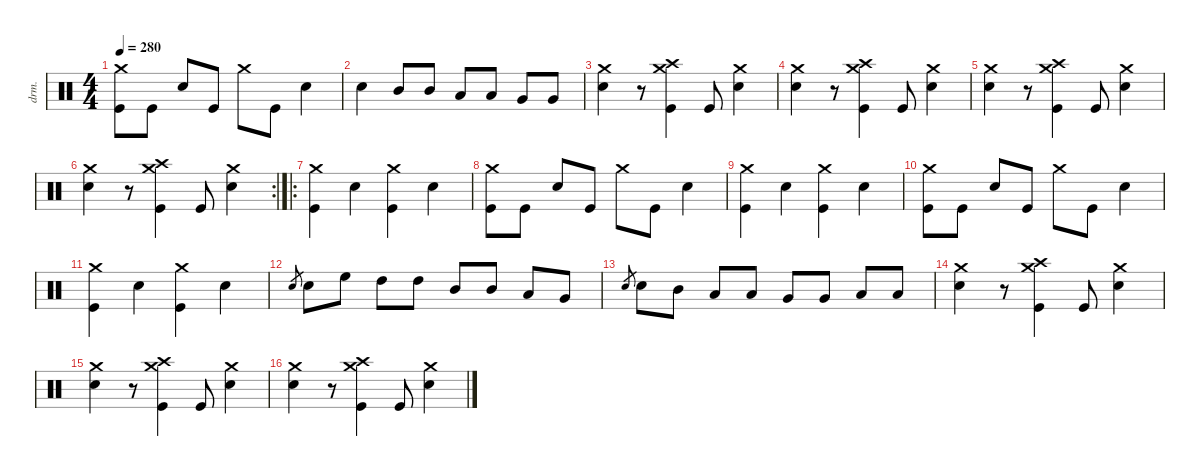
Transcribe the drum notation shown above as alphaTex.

\defaultSystemsLayout 4
\hideDynamics
\bracketExtendMode nobrackets
\otherSystemsTrackNameOrientation horizontal
\track ("Nick Menza" "drm.") {instrument percussion}
\staff {score}
\articulation defaults
\ts (4 4)
\tempo 280
\clef neutral
\ks c
("Crash medium (hit)" "Kick (hit)").8{dy f beam Down} "Kick (hit)".8{beam Down} "Snare (hit) 2".8{beam Up} "Kick (hit)".8{beam Up} "Crash medium (hit)".8{beam Down} "Kick (hit)".8{beam Down} "Snare (hit) 2".4{beam Down} |
"Snare (hit) 2".4{beam Down} "Mid Tom (hit)".8{beam Up} "Mid Tom (hit)".8{beam Up} "Low Tom (hit)".8{beam Up} "Low Tom (hit)".8{beam Up} "Very Low Tom (hit)".8{beam Up} "Very Low Tom (hit)".8{beam Up} |
("Crash medium (hit)" "Snare (hit) 2").4{beam Down} r.8{beam Down} ("Crash high (hit)" "Crash medium (hit)" "Kick (hit)").4{dy mp beam Down} "Kick (hit)".8{dy f beam Up} ("Crash medium (hit)" "Snare (hit) 2").4{beam Down} |
("Crash medium (hit)" "Snare (hit) 2").4{beam Down} r.8{beam Down} ("Crash high (hit)" "Crash medium (hit)" "Kick (hit)").4{dy mp beam Down} "Kick (hit)".8{dy f beam Up} ("Crash medium (hit)" "Snare (hit) 2").4{beam Down} |
("Crash medium (hit)" "Snare (hit) 2").4{beam Down} r.8{beam Down} ("Crash high (hit)" "Crash medium (hit)" "Kick (hit)").4{dy mp beam Down} "Kick (hit)".8{dy f beam Up} ("Crash medium (hit)" "Snare (hit) 2").4{beam Down} |
\rc 2
("Crash medium (hit)" "Snare (hit) 2").4{beam Down} r.8{beam Down} ("Crash high (hit)" "Crash medium (hit)" "Kick (hit)").4{dy mp beam Down} "Kick (hit)".8{dy f beam Up} ("Crash medium (hit)" "Snare (hit) 2").4{beam Down} |
\ro
("Crash medium (hit)" "Kick (hit)").4{beam Down} "Snare (hit) 2".4{beam Down} ("Crash medium (hit)" "Kick (hit)").4{beam Down} "Snare (hit) 2".4{beam Down} |
("Crash medium (hit)" "Kick (hit)").8{beam Down} "Kick (hit)".8{beam Down} "Snare (hit) 2".8{beam Up} "Kick (hit)".8{beam Up} "Crash medium (hit)".8{beam Down} "Kick (hit)".8{beam Down} "Snare (hit) 2".4{beam Down} |
("Crash medium (hit)" "Kick (hit)").4{beam Down} "Snare (hit) 2".4{beam Down} ("Crash medium (hit)" "Kick (hit)").4{beam Down} "Snare (hit) 2".4{beam Down} |
("Crash medium (hit)" "Kick (hit)").8{beam Down} "Kick (hit)".8{beam Down} "Snare (hit) 2".8{beam Up} "Kick (hit)".8{beam Up} "Crash medium (hit)".8{beam Down} "Kick (hit)".8{beam Down} "Snare (hit) 2".4{beam Down} |
("Crash medium (hit)" "Kick (hit)").4{beam Down} "Snare (hit) 2".4{beam Down} ("Crash medium (hit)" "Kick (hit)").4{beam Down} "Snare (hit) 2".4{beam Down} |
"Snare (hit) 2".8{gr dy mf beam Up} "Snare (hit) 2".8{dy f beam Down} "High Floor Tom (hit)".8{beam Down} "High Tom (hit)".8{beam Down} "High Tom (hit)".8{beam Down} "Mid Tom (hit)".8{beam Up} "Mid Tom (hit)".8{beam Up} "Low Tom (hit)".8{beam Up} "Very Low Tom (hit)".8{beam Up} |
"Snare (hit) 2".8{gr dy mf beam Up} "Snare (hit) 2".8{dy f beam Down} "Mid Tom (hit)".8{beam Down} "Low Tom (hit)".8{beam Up} "Low Tom (hit)".8{beam Up} "Very Low Tom (hit)".8{beam Up} "Very Low Tom (hit)".8{beam Up} "Low Floor Tom (hit)".8{beam Up} "Low Floor Tom (hit)".8{beam Up} |
("Crash medium (hit)" "Snare (hit) 2").4{beam Down} r.8{beam Down} ("Crash high (hit)" "Crash medium (hit)" "Kick (hit)").4{dy mp beam Down} "Kick (hit)".8{dy f beam Up} ("Crash medium (hit)" "Snare (hit) 2").4{beam Down} |
("Crash medium (hit)" "Snare (hit) 2").4{beam Down} r.8{beam Down} ("Crash high (hit)" "Crash medium (hit)" "Kick (hit)").4{dy mp beam Down} "Kick (hit)".8{dy f beam Up} ("Crash medium (hit)" "Snare (hit) 2").4{beam Down} |
("Crash medium (hit)" "Snare (hit) 2").4{beam Down} r.8{beam Down} ("Crash high (hit)" "Crash medium (hit)" "Kick (hit)").4{dy mp beam Down} "Kick (hit)".8{dy f beam Up} ("Crash medium (hit)" "Snare (hit) 2").4{beam Down}
